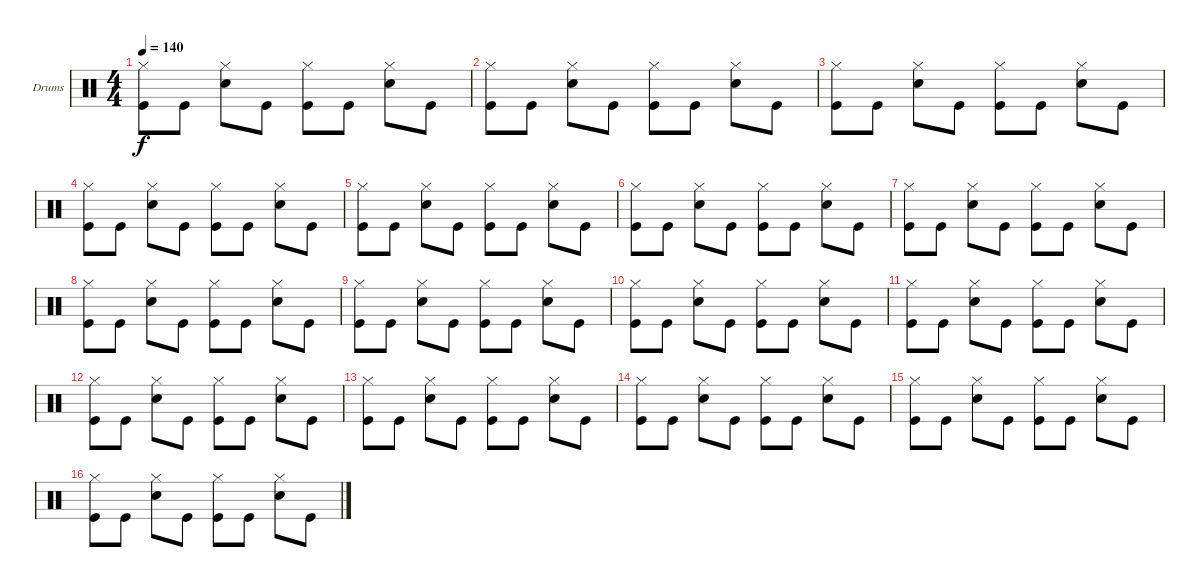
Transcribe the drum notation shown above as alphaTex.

\defaultSystemsLayout 4
\bracketExtendMode groupsimilarinstruments
\firstSystemTrackNameOrientation horizontal
\otherSystemsTrackNameOrientation horizontal
\track ("Drums" "Drums") {instrument percussion}
\staff {score}
\articulation defaults
\ts (4 4)
\tempo 140
\clef neutral
\scale
0.333333
\ks aminor
("Kick (hit)" "Hi-Hat (closed)").8{dy f} "Kick (hit)".8 ("Snare (hit) 2" "Hi-Hat (closed)").8 "Kick (hit)".8 ("Kick (hit)" "Hi-Hat (closed)").8 "Kick (hit)".8 ("Snare (hit) 2" "Hi-Hat (closed)").8 "Kick (hit)".8 |
\scale
0.333333 ("Kick (hit)" "Hi-Hat (closed)").8 "Kick (hit)".8 ("Snare (hit) 2" "Hi-Hat (closed)").8 "Kick (hit)".8 ("Kick (hit)" "Hi-Hat (closed)").8 "Kick (hit)".8 ("Snare (hit) 2" "Hi-Hat (closed)").8 "Kick (hit)".8 |
\scale
0.333333 ("Kick (hit)" "Hi-Hat (closed)").8 "Kick (hit)".8 ("Snare (hit) 2" "Hi-Hat (closed)").8 "Kick (hit)".8 ("Kick (hit)" "Hi-Hat (closed)").8 "Kick (hit)".8 ("Snare (hit) 2" "Hi-Hat (closed)").8 "Kick (hit)".8 |
\scale
0.333333 ("Kick (hit)" "Hi-Hat (closed)").8 "Kick (hit)".8 ("Snare (hit) 2" "Hi-Hat (closed)").8 "Kick (hit)".8 ("Kick (hit)" "Hi-Hat (closed)").8 "Kick (hit)".8 ("Snare (hit) 2" "Hi-Hat (closed)").8 "Kick (hit)".8 |
\scale
0.333333 ("Kick (hit)" "Hi-Hat (closed)").8 "Kick (hit)".8 ("Snare (hit) 2" "Hi-Hat (closed)").8 "Kick (hit)".8 ("Kick (hit)" "Hi-Hat (closed)").8 "Kick (hit)".8 ("Snare (hit) 2" "Hi-Hat (closed)").8 "Kick (hit)".8 |
\scale
0.333333 ("Kick (hit)" "Hi-Hat (closed)").8 "Kick (hit)".8 ("Snare (hit) 2" "Hi-Hat (closed)").8 "Kick (hit)".8 ("Kick (hit)" "Hi-Hat (closed)").8 "Kick (hit)".8 ("Snare (hit) 2" "Hi-Hat (closed)").8 "Kick (hit)".8 |
\scale
0.333333 ("Kick (hit)" "Hi-Hat (closed)").8 "Kick (hit)".8 ("Snare (hit) 2" "Hi-Hat (closed)").8 "Kick (hit)".8 ("Kick (hit)" "Hi-Hat (closed)").8 "Kick (hit)".8 ("Snare (hit) 2" "Hi-Hat (closed)").8 "Kick (hit)".8 |
\scale
0.333333 ("Kick (hit)" "Hi-Hat (closed)").8 "Kick (hit)".8 ("Snare (hit) 2" "Hi-Hat (closed)").8 "Kick (hit)".8 ("Kick (hit)" "Hi-Hat (closed)").8 "Kick (hit)".8 ("Snare (hit) 2" "Hi-Hat (closed)").8 "Kick (hit)".8 |
\scale
0.333333 ("Kick (hit)" "Hi-Hat (closed)").8 "Kick (hit)".8 ("Snare (hit) 2" "Hi-Hat (closed)").8 "Kick (hit)".8 ("Kick (hit)" "Hi-Hat (closed)").8 "Kick (hit)".8 ("Snare (hit) 2" "Hi-Hat (closed)").8 "Kick (hit)".8 |
\scale
0.333333 ("Kick (hit)" "Hi-Hat (closed)").8 "Kick (hit)".8 ("Snare (hit) 2" "Hi-Hat (closed)").8 "Kick (hit)".8 ("Kick (hit)" "Hi-Hat (closed)").8 "Kick (hit)".8 ("Snare (hit) 2" "Hi-Hat (closed)").8 "Kick (hit)".8 |
\scale
0.333333 ("Kick (hit)" "Hi-Hat (closed)").8 "Kick (hit)".8 ("Snare (hit) 2" "Hi-Hat (closed)").8 "Kick (hit)".8 ("Kick (hit)" "Hi-Hat (closed)").8 "Kick (hit)".8 ("Snare (hit) 2" "Hi-Hat (closed)").8 "Kick (hit)".8 |
\scale
0.333333 ("Kick (hit)" "Hi-Hat (closed)").8 "Kick (hit)".8 ("Snare (hit) 2" "Hi-Hat (closed)").8 "Kick (hit)".8 ("Kick (hit)" "Hi-Hat (closed)").8 "Kick (hit)".8 ("Snare (hit) 2" "Hi-Hat (closed)").8 "Kick (hit)".8 |
\scale
0.333333 ("Kick (hit)" "Hi-Hat (closed)").8 "Kick (hit)".8 ("Snare (hit) 2" "Hi-Hat (closed)").8 "Kick (hit)".8 ("Kick (hit)" "Hi-Hat (closed)").8 "Kick (hit)".8 ("Snare (hit) 2" "Hi-Hat (closed)").8 "Kick (hit)".8 |
\scale
0.333333 ("Kick (hit)" "Hi-Hat (closed)").8 "Kick (hit)".8 ("Snare (hit) 2" "Hi-Hat (closed)").8 "Kick (hit)".8 ("Kick (hit)" "Hi-Hat (closed)").8 "Kick (hit)".8 ("Snare (hit) 2" "Hi-Hat (closed)").8 "Kick (hit)".8 |
\scale
0.333333 ("Kick (hit)" "Hi-Hat (closed)").8 "Kick (hit)".8 ("Snare (hit) 2" "Hi-Hat (closed)").8 "Kick (hit)".8 ("Kick (hit)" "Hi-Hat (closed)").8 "Kick (hit)".8 ("Snare (hit) 2" "Hi-Hat (closed)").8 "Kick (hit)".8 |
\scale
0.333333 ("Kick (hit)" "Hi-Hat (closed)").8 "Kick (hit)".8 ("Snare (hit) 2" "Hi-Hat (closed)").8 "Kick (hit)".8 ("Kick (hit)" "Hi-Hat (closed)").8 "Kick (hit)".8 ("Snare (hit) 2" "Hi-Hat (closed)").8 "Kick (hit)".8
